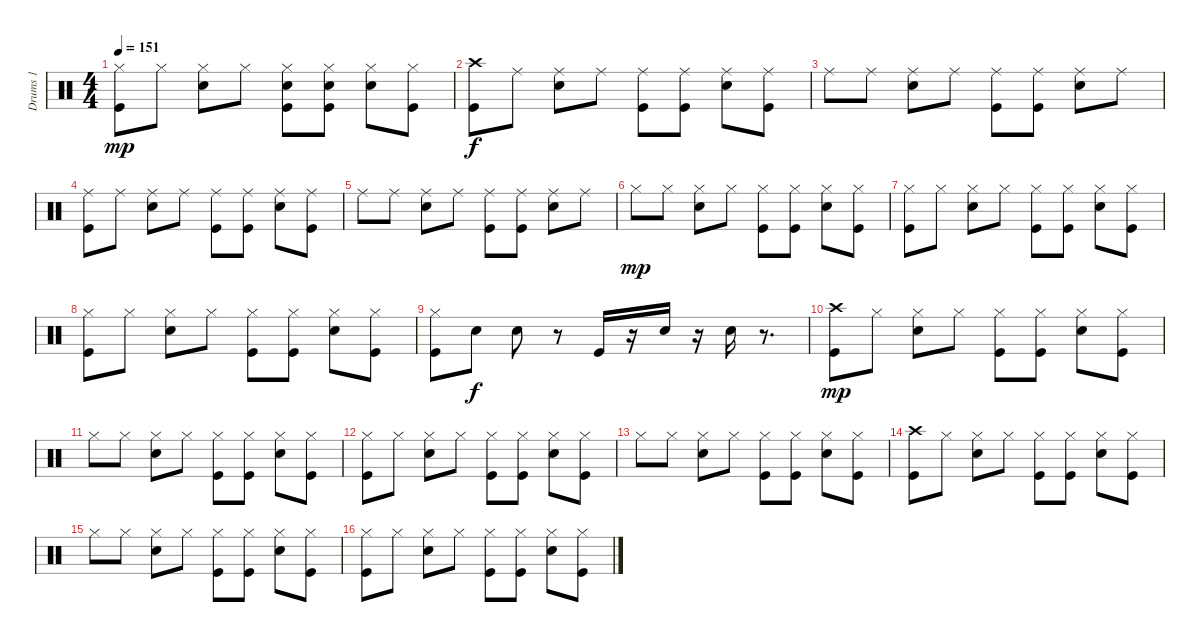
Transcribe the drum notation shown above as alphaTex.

\track ("Drums 1" "Drums 1") {instrument percussion}
\staff {score}
\articulation defaults
\ts (4 4)
\tempo 151
\clef neutral
\ks c
("Hi-Hat (closed)" "Kick (hit)").8{dy mp} "Hi-Hat (closed)".8 ("Hi-Hat (closed)" "Snare (hit) 2").8 "Hi-Hat (closed)".8 ("Hi-Hat (closed)" "Kick (hit)" "Snare (hit) 2").8 ("Kick (hit)" "Snare (hit) 2" "Hi-Hat (closed)").8 ("Hi-Hat (closed)" "Snare (hit) 2").8 ("Hi-Hat (closed)" "Kick (hit)").8 |
("Crash high (hit)" "Kick (hit)").8{dy f} "Ride (middle)".8 ("Snare (hit) 2" "Ride (middle)").8 "Ride (middle)".8 ("Ride (middle)" "Kick (hit)").8 ("Kick (hit)" "Ride (middle)").8 ("Snare (hit) 2" "Ride (middle)").8 ("Ride (middle)" "Kick (hit)").8 |
"Ride (middle)".8 "Ride (middle)".8 ("Ride (middle)" "Snare (hit) 2").8 "Ride (middle)".8 ("Ride (middle)" "Kick (hit)").8 ("Kick (hit)" "Ride (middle)").8 ("Ride (middle)" "Snare (hit) 2").8 "Ride (middle)".8 |
("Ride (middle)" "Kick (hit)").8 "Ride (middle)".8 ("Snare (hit) 2" "Ride (middle)").8 "Ride (middle)".8 ("Ride (middle)" "Kick (hit)").8 ("Kick (hit)" "Ride (middle)").8 ("Snare (hit) 2" "Ride (middle)").8 ("Ride (middle)" "Kick (hit)").8 |
"Ride (middle)".8 "Ride (middle)".8 ("Ride (middle)" "Snare (hit) 2").8 "Ride (middle)".8 ("Ride (middle)" "Kick (hit)").8 ("Kick (hit)" "Ride (middle)").8 ("Ride (middle)" "Snare (hit) 2").8 "Ride (middle)".8 |
"Hi-Hat (closed)".8{dy mp} "Hi-Hat (closed)".8 ("Hi-Hat (closed)" "Snare (hit) 2").8 "Hi-Hat (closed)".8 ("Kick (hit)" "Hi-Hat (closed)").8 ("Kick (hit)" "Hi-Hat (closed)").8 ("Snare (hit) 2" "Hi-Hat (closed)").8 ("Hi-Hat (closed)" "Kick (hit)").8 |
("Hi-Hat (closed)" "Kick (hit)").8 "Hi-Hat (closed)".8 ("Hi-Hat (closed)" "Snare (hit) 2").8 "Hi-Hat (closed)".8 ("Hi-Hat (closed)" "Kick (hit)").8 ("Kick (hit)" "Hi-Hat (closed)").8 ("Hi-Hat (closed)" "Snare (hit) 2").8 ("Hi-Hat (closed)" "Kick (hit)").8 |
("Hi-Hat (closed)" "Kick (hit)").8 "Hi-Hat (closed)".8 ("Hi-Hat (closed)" "Snare (hit) 2").8 "Hi-Hat (closed)".8 ("Hi-Hat (closed)" "Kick (hit)").8 ("Kick (hit)" "Hi-Hat (closed)").8 ("Hi-Hat (closed)" "Snare (hit) 2").8 ("Hi-Hat (closed)" "Kick (hit)").8 |
("Hi-Hat (closed)" "Kick (hit)").8 "Snare (hit) 2".8{dy f} "Snare (hit) 2".8 r.8 "Kick (hit)".16 r.16 "Snare (hit) 2".16 r.16 "Snare (hit) 2".16 r.8{d} |
("Crash high (hit)" "Kick (hit)").8{dy mp} "Hi-Hat (closed)".8 ("Hi-Hat (closed)" "Snare (hit) 2").8 "Hi-Hat (closed)".8 ("Hi-Hat (closed)" "Kick (hit)").8 ("Kick (hit)" "Hi-Hat (closed)").8 ("Hi-Hat (closed)" "Snare (hit) 2").8 ("Hi-Hat (closed)" "Kick (hit)").8 |
"Hi-Hat (closed)".8 "Hi-Hat (closed)".8 ("Hi-Hat (closed)" "Snare (hit) 2").8 "Hi-Hat (closed)".8 ("Kick (hit)" "Hi-Hat (closed)").8 ("Kick (hit)" "Hi-Hat (closed)").8 ("Snare (hit) 2" "Hi-Hat (closed)").8 ("Hi-Hat (closed)" "Kick (hit)").8 |
("Hi-Hat (closed)" "Kick (hit)").8 "Hi-Hat (closed)".8 ("Hi-Hat (closed)" "Snare (hit) 2").8 "Hi-Hat (closed)".8 ("Hi-Hat (closed)" "Kick (hit)").8 ("Kick (hit)" "Hi-Hat (closed)").8 ("Hi-Hat (closed)" "Snare (hit) 2").8 ("Hi-Hat (closed)" "Kick (hit)").8 |
"Hi-Hat (closed)".8 "Hi-Hat (closed)".8 ("Hi-Hat (closed)" "Snare (hit) 2").8 "Hi-Hat (closed)".8 ("Kick (hit)" "Hi-Hat (closed)").8 ("Kick (hit)" "Hi-Hat (closed)").8 ("Snare (hit) 2" "Hi-Hat (closed)").8 ("Hi-Hat (closed)" "Kick (hit)").8 |
("Crash high (hit)" "Kick (hit)").8 "Hi-Hat (closed)".8 ("Hi-Hat (closed)" "Snare (hit) 2").8 "Hi-Hat (closed)".8 ("Hi-Hat (closed)" "Kick (hit)").8 ("Kick (hit)" "Hi-Hat (closed)").8 ("Hi-Hat (closed)" "Snare (hit) 2").8 ("Hi-Hat (closed)" "Kick (hit)").8 |
"Hi-Hat (closed)".8 "Hi-Hat (closed)".8 ("Hi-Hat (closed)" "Snare (hit) 2").8 "Hi-Hat (closed)".8 ("Kick (hit)" "Hi-Hat (closed)").8 ("Kick (hit)" "Hi-Hat (closed)").8 ("Snare (hit) 2" "Hi-Hat (closed)").8 ("Hi-Hat (closed)" "Kick (hit)").8 |
("Hi-Hat (closed)" "Kick (hit)").8 "Hi-Hat (closed)".8 ("Hi-Hat (closed)" "Snare (hit) 2").8 "Hi-Hat (closed)".8 ("Hi-Hat (closed)" "Kick (hit)").8 ("Kick (hit)" "Hi-Hat (closed)").8 ("Hi-Hat (closed)" "Snare (hit) 2").8 ("Hi-Hat (closed)" "Kick (hit)").8
